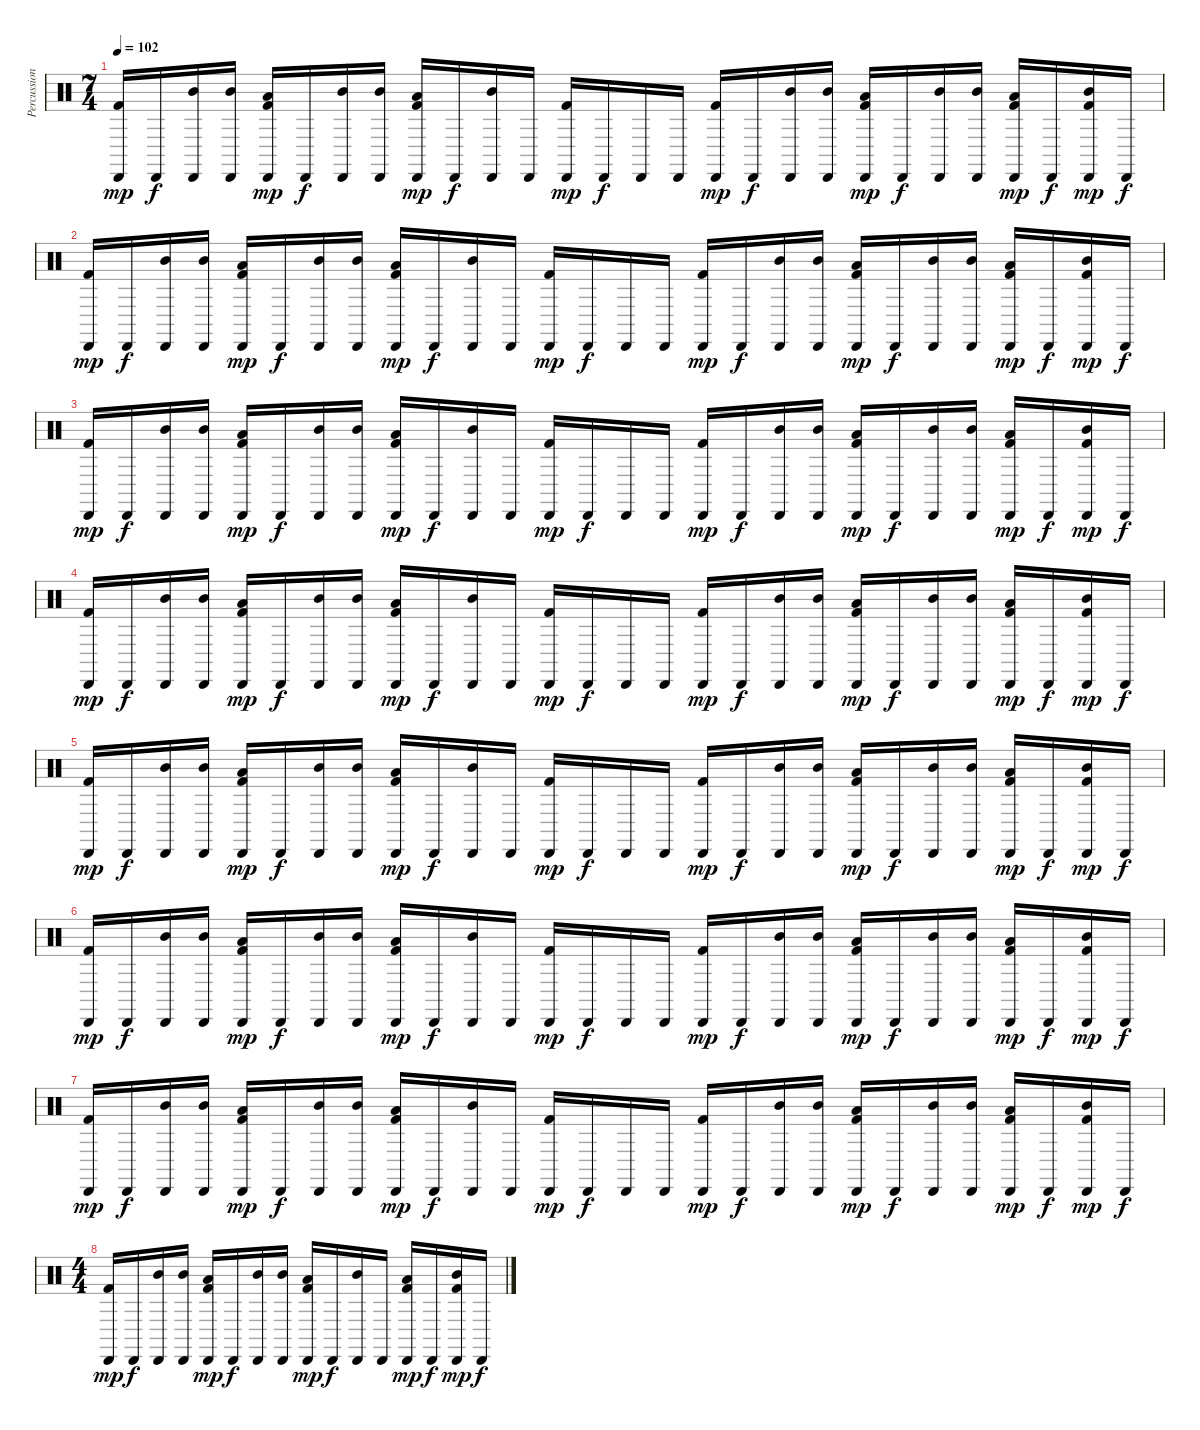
\track ("Percussion" "Percussion") {instrument percussion}
\staff {score}
\articulation defaults
\ts (7 4)
\tempo 102
\clef neutral
\ks c
("Cabasa (hit)" "Kick (hit) 2").16{dy mp} "Cabasa (hit)".16{dy f} ("Cabasa (hit)" "Mid Tom (hit)").16 ("Cabasa (hit)" "Mid Tom (hit)").16 ("Cabasa (hit)" "Low Tom (hit)" "Kick (hit) 2").16{dy mp} "Cabasa (hit)".16{dy f} ("Cabasa (hit)" "Mid Tom (hit)").16 ("Cabasa (hit)" "Mid Tom (hit)").16 ("Cabasa (hit)" "Low Tom (hit)" "Kick (hit) 2").16{dy mp} "Cabasa (hit)".16{dy f} ("Cabasa (hit)" "Mid Tom (hit)").16 "Cabasa (hit)".16 ("Cabasa (hit)" "Kick (hit) 2").16{dy mp} "Cabasa (hit)".16{dy f} "Cabasa (hit)".16 "Cabasa (hit)".16 ("Cabasa (hit)" "Kick (hit) 2").16{dy mp} "Cabasa (hit)".16{dy f} ("Cabasa (hit)" "Mid Tom (hit)").16 ("Cabasa (hit)" "Mid Tom (hit)").16 ("Cabasa (hit)" "Low Tom (hit)" "Kick (hit) 2").16{dy mp} "Cabasa (hit)".16{dy f} ("Cabasa (hit)" "Mid Tom (hit)").16 ("Cabasa (hit)" "Mid Tom (hit)").16 ("Cabasa (hit)" "Low Tom (hit)" "Kick (hit) 2").16{dy mp} "Cabasa (hit)".16{dy f} ("Cabasa (hit)" "Mid Tom (hit)" "Kick (hit) 2").16{dy mp} "Cabasa (hit)".16{dy f} |
("Cabasa (hit)" "Kick (hit) 2").16{dy mp} "Cabasa (hit)".16{dy f} ("Cabasa (hit)" "Mid Tom (hit)").16 ("Cabasa (hit)" "Mid Tom (hit)").16 ("Cabasa (hit)" "Low Tom (hit)" "Kick (hit) 2").16{dy mp} "Cabasa (hit)".16{dy f} ("Cabasa (hit)" "Mid Tom (hit)").16 ("Cabasa (hit)" "Mid Tom (hit)").16 ("Cabasa (hit)" "Low Tom (hit)" "Kick (hit) 2").16{dy mp} "Cabasa (hit)".16{dy f} ("Cabasa (hit)" "Mid Tom (hit)").16 "Cabasa (hit)".16 ("Cabasa (hit)" "Kick (hit) 2").16{dy mp} "Cabasa (hit)".16{dy f} "Cabasa (hit)".16 "Cabasa (hit)".16 ("Cabasa (hit)" "Kick (hit) 2").16{dy mp} "Cabasa (hit)".16{dy f} ("Cabasa (hit)" "Mid Tom (hit)").16 ("Cabasa (hit)" "Mid Tom (hit)").16 ("Cabasa (hit)" "Low Tom (hit)" "Kick (hit) 2").16{dy mp} "Cabasa (hit)".16{dy f} ("Cabasa (hit)" "Mid Tom (hit)").16 ("Cabasa (hit)" "Mid Tom (hit)").16 ("Cabasa (hit)" "Low Tom (hit)" "Kick (hit) 2").16{dy mp} "Cabasa (hit)".16{dy f} ("Cabasa (hit)" "Mid Tom (hit)" "Kick (hit) 2").16{dy mp} "Cabasa (hit)".16{dy f} |
("Cabasa (hit)" "Kick (hit) 2").16{dy mp} "Cabasa (hit)".16{dy f} ("Cabasa (hit)" "Mid Tom (hit)").16 ("Cabasa (hit)" "Mid Tom (hit)").16 ("Cabasa (hit)" "Low Tom (hit)" "Kick (hit) 2").16{dy mp} "Cabasa (hit)".16{dy f} ("Cabasa (hit)" "Mid Tom (hit)").16 ("Cabasa (hit)" "Mid Tom (hit)").16 ("Cabasa (hit)" "Low Tom (hit)" "Kick (hit) 2").16{dy mp} "Cabasa (hit)".16{dy f} ("Cabasa (hit)" "Mid Tom (hit)").16 "Cabasa (hit)".16 ("Cabasa (hit)" "Kick (hit) 2").16{dy mp} "Cabasa (hit)".16{dy f} "Cabasa (hit)".16 "Cabasa (hit)".16 ("Cabasa (hit)" "Kick (hit) 2").16{dy mp} "Cabasa (hit)".16{dy f} ("Cabasa (hit)" "Mid Tom (hit)").16 ("Cabasa (hit)" "Mid Tom (hit)").16 ("Cabasa (hit)" "Low Tom (hit)" "Kick (hit) 2").16{dy mp} "Cabasa (hit)".16{dy f} ("Cabasa (hit)" "Mid Tom (hit)").16 ("Cabasa (hit)" "Mid Tom (hit)").16 ("Cabasa (hit)" "Low Tom (hit)" "Kick (hit) 2").16{dy mp} "Cabasa (hit)".16{dy f} ("Cabasa (hit)" "Mid Tom (hit)" "Kick (hit) 2").16{dy mp} "Cabasa (hit)".16{dy f} |
("Cabasa (hit)" "Kick (hit) 2").16{dy mp} "Cabasa (hit)".16{dy f} ("Cabasa (hit)" "Mid Tom (hit)").16 ("Cabasa (hit)" "Mid Tom (hit)").16 ("Cabasa (hit)" "Low Tom (hit)" "Kick (hit) 2").16{dy mp} "Cabasa (hit)".16{dy f} ("Cabasa (hit)" "Mid Tom (hit)").16 ("Cabasa (hit)" "Mid Tom (hit)").16 ("Cabasa (hit)" "Low Tom (hit)" "Kick (hit) 2").16{dy mp} "Cabasa (hit)".16{dy f} ("Cabasa (hit)" "Mid Tom (hit)").16 "Cabasa (hit)".16 ("Cabasa (hit)" "Kick (hit) 2").16{dy mp} "Cabasa (hit)".16{dy f} "Cabasa (hit)".16 "Cabasa (hit)".16 ("Cabasa (hit)" "Kick (hit) 2").16{dy mp} "Cabasa (hit)".16{dy f} ("Cabasa (hit)" "Mid Tom (hit)").16 ("Cabasa (hit)" "Mid Tom (hit)").16 ("Cabasa (hit)" "Low Tom (hit)" "Kick (hit) 2").16{dy mp} "Cabasa (hit)".16{dy f} ("Cabasa (hit)" "Mid Tom (hit)").16 ("Cabasa (hit)" "Mid Tom (hit)").16 ("Cabasa (hit)" "Low Tom (hit)" "Kick (hit) 2").16{dy mp} "Cabasa (hit)".16{dy f} ("Cabasa (hit)" "Mid Tom (hit)" "Kick (hit) 2").16{dy mp} "Cabasa (hit)".16{dy f} |
("Cabasa (hit)" "Kick (hit) 2").16{dy mp} "Cabasa (hit)".16{dy f} ("Cabasa (hit)" "Mid Tom (hit)").16 ("Cabasa (hit)" "Mid Tom (hit)").16 ("Cabasa (hit)" "Low Tom (hit)" "Kick (hit) 2").16{dy mp} "Cabasa (hit)".16{dy f} ("Cabasa (hit)" "Mid Tom (hit)").16 ("Cabasa (hit)" "Mid Tom (hit)").16 ("Cabasa (hit)" "Low Tom (hit)" "Kick (hit) 2").16{dy mp} "Cabasa (hit)".16{dy f} ("Cabasa (hit)" "Mid Tom (hit)").16 "Cabasa (hit)".16 ("Cabasa (hit)" "Kick (hit) 2").16{dy mp} "Cabasa (hit)".16{dy f} "Cabasa (hit)".16 "Cabasa (hit)".16 ("Cabasa (hit)" "Kick (hit) 2").16{dy mp} "Cabasa (hit)".16{dy f} ("Cabasa (hit)" "Mid Tom (hit)").16 ("Cabasa (hit)" "Mid Tom (hit)").16 ("Cabasa (hit)" "Low Tom (hit)" "Kick (hit) 2").16{dy mp} "Cabasa (hit)".16{dy f} ("Cabasa (hit)" "Mid Tom (hit)").16 ("Cabasa (hit)" "Mid Tom (hit)").16 ("Cabasa (hit)" "Low Tom (hit)" "Kick (hit) 2").16{dy mp} "Cabasa (hit)".16{dy f} ("Cabasa (hit)" "Mid Tom (hit)" "Kick (hit) 2").16{dy mp} "Cabasa (hit)".16{dy f} |
("Cabasa (hit)" "Kick (hit) 2").16{dy mp} "Cabasa (hit)".16{dy f} ("Cabasa (hit)" "Mid Tom (hit)").16 ("Cabasa (hit)" "Mid Tom (hit)").16 ("Cabasa (hit)" "Low Tom (hit)" "Kick (hit) 2").16{dy mp} "Cabasa (hit)".16{dy f} ("Cabasa (hit)" "Mid Tom (hit)").16 ("Cabasa (hit)" "Mid Tom (hit)").16 ("Cabasa (hit)" "Low Tom (hit)" "Kick (hit) 2").16{dy mp} "Cabasa (hit)".16{dy f} ("Cabasa (hit)" "Mid Tom (hit)").16 "Cabasa (hit)".16 ("Cabasa (hit)" "Kick (hit) 2").16{dy mp} "Cabasa (hit)".16{dy f} "Cabasa (hit)".16 "Cabasa (hit)".16 ("Cabasa (hit)" "Kick (hit) 2").16{dy mp} "Cabasa (hit)".16{dy f} ("Cabasa (hit)" "Mid Tom (hit)").16 ("Cabasa (hit)" "Mid Tom (hit)").16 ("Cabasa (hit)" "Low Tom (hit)" "Kick (hit) 2").16{dy mp} "Cabasa (hit)".16{dy f} ("Cabasa (hit)" "Mid Tom (hit)").16 ("Cabasa (hit)" "Mid Tom (hit)").16 ("Cabasa (hit)" "Low Tom (hit)" "Kick (hit) 2").16{dy mp} "Cabasa (hit)".16{dy f} ("Cabasa (hit)" "Mid Tom (hit)" "Kick (hit) 2").16{dy mp} "Cabasa (hit)".16{dy f} |
("Cabasa (hit)" "Kick (hit) 2").16{dy mp} "Cabasa (hit)".16{dy f} ("Cabasa (hit)" "Mid Tom (hit)").16 ("Cabasa (hit)" "Mid Tom (hit)").16 ("Cabasa (hit)" "Low Tom (hit)" "Kick (hit) 2").16{dy mp} "Cabasa (hit)".16{dy f} ("Cabasa (hit)" "Mid Tom (hit)").16 ("Cabasa (hit)" "Mid Tom (hit)").16 ("Cabasa (hit)" "Low Tom (hit)" "Kick (hit) 2").16{dy mp} "Cabasa (hit)".16{dy f} ("Cabasa (hit)" "Mid Tom (hit)").16 "Cabasa (hit)".16 ("Cabasa (hit)" "Kick (hit) 2").16{dy mp} "Cabasa (hit)".16{dy f} "Cabasa (hit)".16 "Cabasa (hit)".16 ("Cabasa (hit)" "Kick (hit) 2").16{dy mp} "Cabasa (hit)".16{dy f} ("Cabasa (hit)" "Mid Tom (hit)").16 ("Cabasa (hit)" "Mid Tom (hit)").16 ("Cabasa (hit)" "Low Tom (hit)" "Kick (hit) 2").16{dy mp} "Cabasa (hit)".16{dy f} ("Cabasa (hit)" "Mid Tom (hit)").16 ("Cabasa (hit)" "Mid Tom (hit)").16 ("Cabasa (hit)" "Low Tom (hit)" "Kick (hit) 2").16{dy mp} "Cabasa (hit)".16{dy f} ("Cabasa (hit)" "Mid Tom (hit)" "Kick (hit) 2").16{dy mp} "Cabasa (hit)".16{dy f} |
\ts (4 4)
("Cabasa (hit)" "Kick (hit) 2").16{dy mp} "Cabasa (hit)".16{dy f} ("Cabasa (hit)" "Mid Tom (hit)").16 ("Cabasa (hit)" "Mid Tom (hit)").16 ("Cabasa (hit)" "Low Tom (hit)" "Kick (hit) 2").16{dy mp} "Cabasa (hit)".16{dy f} ("Cabasa (hit)" "Mid Tom (hit)").16 ("Cabasa (hit)" "Mid Tom (hit)").16 ("Cabasa (hit)" "Low Tom (hit)" "Kick (hit) 2").16{dy mp} "Cabasa (hit)".16{dy f} ("Cabasa (hit)" "Mid Tom (hit)").16 "Cabasa (hit)".16 ("Cabasa (hit)" "Low Tom (hit)" "Kick (hit) 2").16{dy mp} "Cabasa (hit)".16{dy f} ("Cabasa (hit)" "Mid Tom (hit)" "Kick (hit) 2").16{dy mp} "Cabasa (hit)".16{dy f}
